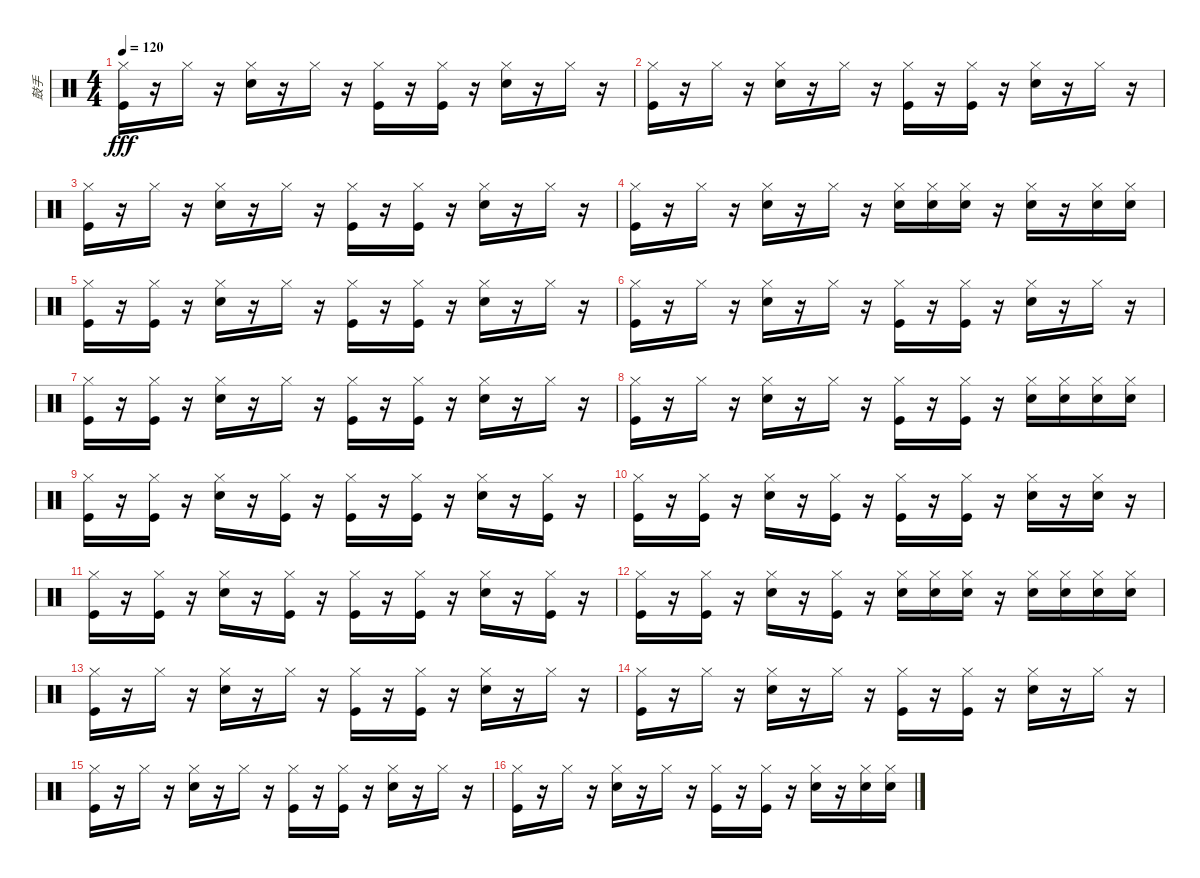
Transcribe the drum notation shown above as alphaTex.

\track ("鼓手" "鼓手") {instrument percussion}
\staff {score}
\articulation defaults
\ts (4 4)
\tempo 120
\clef neutral
\ks c
("Kick (hit)" "Hi-Hat (closed)").16{dy fff} r.16 "Hi-Hat (closed)".16 r.16 ("Snare (hit) 2" "Hi-Hat (closed)").16 r.16 "Hi-Hat (closed)".16 r.16 ("Kick (hit)" "Hi-Hat (closed)").16 r.16 ("Kick (hit)" "Hi-Hat (closed)").16 r.16 ("Snare (hit) 2" "Hi-Hat (closed)").16 r.16 "Hi-Hat (closed)".16 r.16 |
("Kick (hit)" "Hi-Hat (closed)").16 r.16 "Hi-Hat (closed)".16 r.16 ("Snare (hit) 2" "Hi-Hat (closed)").16 r.16 "Hi-Hat (closed)".16 r.16 ("Kick (hit)" "Hi-Hat (closed)").16 r.16 ("Kick (hit)" "Hi-Hat (closed)").16 r.16 ("Snare (hit) 2" "Hi-Hat (closed)").16 r.16 "Hi-Hat (closed)".16 r.16 |
("Kick (hit)" "Hi-Hat (closed)").16 r.16 "Hi-Hat (closed)".16 r.16 ("Snare (hit) 2" "Hi-Hat (closed)").16 r.16 "Hi-Hat (closed)".16 r.16 ("Kick (hit)" "Hi-Hat (closed)").16 r.16 ("Kick (hit)" "Hi-Hat (closed)").16 r.16 ("Snare (hit) 2" "Hi-Hat (closed)").16 r.16 "Hi-Hat (closed)".16 r.16 |
("Kick (hit)" "Hi-Hat (closed)").16 r.16 "Hi-Hat (closed)".16 r.16 ("Snare (hit) 2" "Hi-Hat (closed)").16 r.16 "Hi-Hat (closed)".16 r.16 ("Snare (hit) 2" "Hi-Hat (closed)").16 ("Snare (hit) 2" "Hi-Hat (closed)").16 ("Snare (hit) 2" "Hi-Hat (closed)").16 r.16 ("Snare (hit) 2" "Hi-Hat (closed)").16 r.16 ("Snare (hit) 2" "Hi-Hat (closed)").16 ("Snare (hit) 2" "Hi-Hat (closed)").16 |
("Kick (hit)" "Hi-Hat (closed)").16 r.16 ("Kick (hit)" "Hi-Hat (closed)").16 r.16 ("Snare (hit) 2" "Hi-Hat (closed)").16 r.16 "Hi-Hat (closed)".16 r.16 ("Kick (hit)" "Hi-Hat (closed)").16 r.16 ("Kick (hit)" "Hi-Hat (closed)").16 r.16 ("Snare (hit) 2" "Hi-Hat (closed)").16 r.16 "Hi-Hat (closed)".16 r.16 |
("Kick (hit)" "Hi-Hat (closed)").16 r.16 "Hi-Hat (closed)".16 r.16 ("Snare (hit) 2" "Hi-Hat (closed)").16 r.16 "Hi-Hat (closed)".16 r.16 ("Kick (hit)" "Hi-Hat (closed)").16 r.16 ("Kick (hit)" "Hi-Hat (closed)").16 r.16 ("Snare (hit) 2" "Hi-Hat (closed)").16 r.16 "Hi-Hat (closed)".16 r.16 |
("Kick (hit)" "Hi-Hat (closed)").16 r.16 ("Kick (hit)" "Hi-Hat (closed)").16 r.16 ("Snare (hit) 2" "Hi-Hat (closed)").16 r.16 "Hi-Hat (closed)".16 r.16 ("Kick (hit)" "Hi-Hat (closed)").16 r.16 ("Kick (hit)" "Hi-Hat (closed)").16 r.16 ("Snare (hit) 2" "Hi-Hat (closed)").16 r.16 "Hi-Hat (closed)".16 r.16 |
("Kick (hit)" "Hi-Hat (closed)").16 r.16 "Hi-Hat (closed)".16 r.16 ("Snare (hit) 2" "Hi-Hat (closed)").16 r.16 "Hi-Hat (closed)".16 r.16 ("Kick (hit)" "Hi-Hat (closed)").16 r.16 ("Kick (hit)" "Hi-Hat (closed)").16 r.16 ("Snare (hit) 2" "Hi-Hat (closed)").16 ("Snare (hit) 2" "Hi-Hat (closed)").16 ("Snare (hit) 2" "Hi-Hat (closed)").16 ("Snare (hit) 2" "Hi-Hat (closed)").16 |
("Kick (hit)" "Hi-Hat (closed)").16 r.16 ("Kick (hit)" "Hi-Hat (closed)").16 r.16 ("Snare (hit) 2" "Hi-Hat (closed)").16 r.16 ("Kick (hit)" "Hi-Hat (closed)").16 r.16 ("Kick (hit)" "Hi-Hat (closed)").16 r.16 ("Kick (hit)" "Hi-Hat (closed)").16 r.16 ("Snare (hit) 2" "Hi-Hat (closed)").16 r.16 ("Kick (hit)" "Hi-Hat (closed)").16 r.16 |
("Kick (hit)" "Hi-Hat (closed)").16 r.16 ("Kick (hit)" "Hi-Hat (closed)").16 r.16 ("Snare (hit) 2" "Hi-Hat (closed)").16 r.16 ("Kick (hit)" "Hi-Hat (closed)").16 r.16 ("Kick (hit)" "Hi-Hat (closed)").16 r.16 ("Kick (hit)" "Hi-Hat (closed)").16 r.16 ("Snare (hit) 2" "Hi-Hat (closed)").16 r.16 ("Snare (hit) 2" "Hi-Hat (closed)").16 r.16 |
("Kick (hit)" "Hi-Hat (closed)").16 r.16 ("Kick (hit)" "Hi-Hat (closed)").16 r.16 ("Snare (hit) 2" "Hi-Hat (closed)").16 r.16 ("Kick (hit)" "Hi-Hat (closed)").16 r.16 ("Kick (hit)" "Hi-Hat (closed)").16 r.16 ("Kick (hit)" "Hi-Hat (closed)").16 r.16 ("Snare (hit) 2" "Hi-Hat (closed)").16 r.16 ("Kick (hit)" "Hi-Hat (closed)").16 r.16 |
("Kick (hit)" "Hi-Hat (closed)").16 r.16 ("Kick (hit)" "Hi-Hat (closed)").16 r.16 ("Snare (hit) 2" "Hi-Hat (closed)").16 r.16 ("Kick (hit)" "Hi-Hat (closed)").16 r.16 ("Snare (hit) 2" "Hi-Hat (closed)").16 ("Snare (hit) 2" "Hi-Hat (closed)").16 ("Snare (hit) 2" "Hi-Hat (closed)").16 r.16 ("Snare (hit) 2" "Hi-Hat (closed)").16 ("Snare (hit) 2" "Hi-Hat (closed)").16 ("Snare (hit) 2" "Hi-Hat (closed)").16 ("Snare (hit) 2" "Hi-Hat (closed)").16 |
("Kick (hit)" "Hi-Hat (closed)").16 r.16 "Hi-Hat (closed)".16 r.16 ("Snare (hit) 2" "Hi-Hat (closed)").16 r.16 "Hi-Hat (closed)".16 r.16 ("Kick (hit)" "Hi-Hat (closed)").16 r.16 ("Kick (hit)" "Hi-Hat (closed)").16 r.16 ("Snare (hit) 2" "Hi-Hat (closed)").16 r.16 "Hi-Hat (closed)".16 r.16 |
("Kick (hit)" "Hi-Hat (closed)").16 r.16 "Hi-Hat (closed)".16 r.16 ("Snare (hit) 2" "Hi-Hat (closed)").16 r.16 "Hi-Hat (closed)".16 r.16 ("Kick (hit)" "Hi-Hat (closed)").16 r.16 ("Kick (hit)" "Hi-Hat (closed)").16 r.16 ("Snare (hit) 2" "Hi-Hat (closed)").16 r.16 "Hi-Hat (closed)".16 r.16 |
("Kick (hit)" "Hi-Hat (closed)").16 r.16 "Hi-Hat (closed)".16 r.16 ("Snare (hit) 2" "Hi-Hat (closed)").16 r.16 "Hi-Hat (closed)".16 r.16 ("Kick (hit)" "Hi-Hat (closed)").16 r.16 ("Kick (hit)" "Hi-Hat (closed)").16 r.16 ("Snare (hit) 2" "Hi-Hat (closed)").16 r.16 "Hi-Hat (closed)".16 r.16 |
("Kick (hit)" "Hi-Hat (closed)").16 r.16 "Hi-Hat (closed)".16 r.16 ("Snare (hit) 2" "Hi-Hat (closed)").16 r.16 "Hi-Hat (closed)".16 r.16 ("Kick (hit)" "Hi-Hat (closed)").16 r.16 ("Kick (hit)" "Hi-Hat (closed)").16 r.16 ("Snare (hit) 2" "Hi-Hat (closed)").16 r.16 ("Snare (hit) 2" "Hi-Hat (closed)").16 ("Snare (hit) 2" "Hi-Hat (closed)").16
